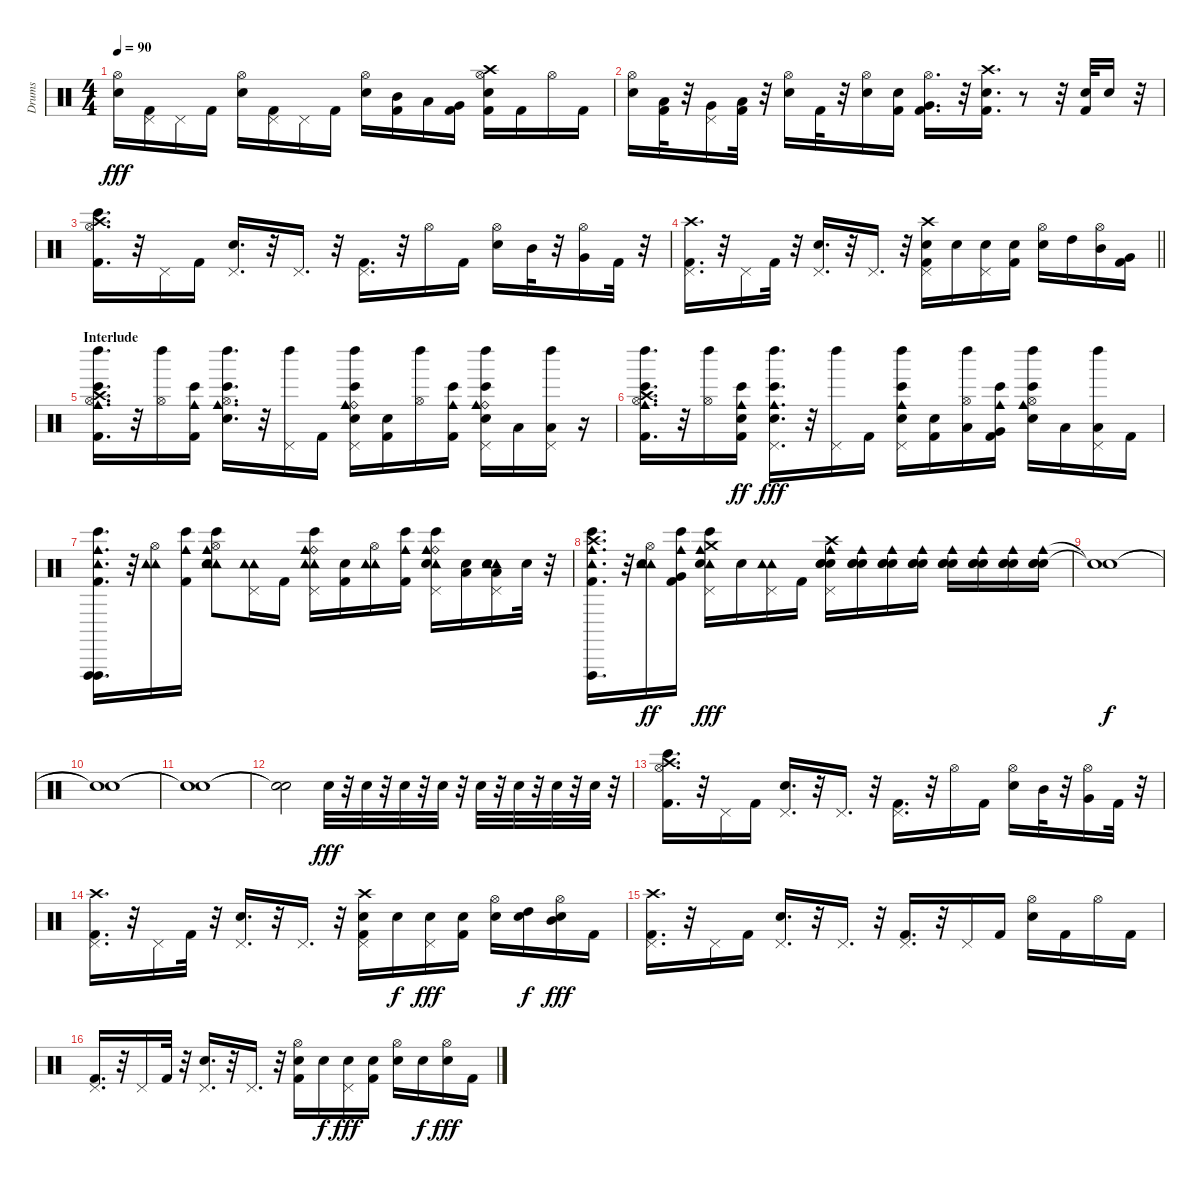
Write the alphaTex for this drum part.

\track ("Drums" "Drums") {instrument percussion}
\staff {score}
\articulation defaults
\ts (4 4)
\tempo 90
\clef neutral
\ks c
("Hi-Hat (open)" "Electric Snare (hit)").16{dy fff} ("Pedal Hi-Hat (hit)" "Kick (hit) 2").16 "Pedal Hi-Hat (hit)".16 "Kick (hit) 2".16 ("Electric Snare (hit)" "Hi-Hat (open)").16 ("Pedal Hi-Hat (hit)" "Kick (hit) 2").16 "Pedal Hi-Hat (hit)".16 "Kick (hit) 2".16 ("Electric Snare (hit)" "Hi-Hat (open)").16 ("Mid Tom (hit)" "Kick (hit) 2").16 "Low Tom (hit)".16 ("Very Low Tom (hit)" "Kick (hit) 2").16 ("Kick (hit) 2" "Crash high (hit)" "Hi-Hat (open)" "Electric Snare (hit)").16 "Kick (hit) 2".16 "Hi-Hat (open)".16 "Kick (hit) 2".16 |
("Hi-Hat (open)" "Electric Snare (hit)").16 ("Kick (hit) 2" "Low Tom (hit)").32 r.32 ("Very Low Tom (hit)" "Pedal Hi-Hat (hit)").16 ("Kick (hit) 2" "Low Floor Tom (hit)").32 r.32 ("Hi-Hat (open)" "Electric Snare (hit)").16 "Kick (hit) 2".32 r.32 ("Electric Snare (hit)" "Hi-Hat (open)").16 ("Electric Snare (hit)" "Kick (hit) 2").16 ("Hi-Hat (open)" "Very Low Tom (hit)" "Kick (hit) 2").16{d} r.32 ("Crash high (hit)" "Kick (hit) 2" "Electric Snare (hit)").16{d} r.8 r.32 ("Kick (hit) 2" "Electric Snare (hit)").32 "Electric Snare (hit)".16 r.32 |
("Bongo High (hit)" "Crash high (hit)" "Kick (hit) 2" "Hi-Hat (open)").16{d} r.32 "Pedal Hi-Hat (hit)".16 "Kick (hit) 2".16 ("Electric Snare (hit)" "Pedal Hi-Hat (hit)").16{d} r.32 "Pedal Hi-Hat (hit)".16{d} r.32 ("Kick (hit) 2" "Pedal Hi-Hat (hit)").16{d} r.32 "Hi-Hat (open)".16 "Kick (hit) 2".16 ("Electric Snare (hit)" "Hi-Hat (open)").16 "Mid Tom (hit)".32 r.32 ("Hi-Hat (open)" "Very Low Tom (hit)").16 "Kick (hit) 2".32 r.32 |
\barLineRight lightlight
("Crash high (hit)" "Kick (hit) 2" "Pedal Hi-Hat (hit)").16{d} r.32 "Pedal Hi-Hat (hit)".16 "Kick (hit) 2".32 r.32 ("Electric Snare (hit)" "Pedal Hi-Hat (hit)").16{d} r.32 "Pedal Hi-Hat (hit)".16{d} r.32 ("Electric Snare (hit)" "Crash high (hit)" "Kick (hit) 2" "Pedal Hi-Hat (hit)").16 "Electric Snare (hit)".16 ("Electric Snare (hit)" "Pedal Hi-Hat (hit)").16 ("Electric Snare (hit)" "Kick (hit) 2").16 ("Electric Snare (hit)" "Hi-Hat (open)").16 "High Tom (hit)".16 ("Mid Tom (hit)" "Hi-Hat (open)").16 ("Very Low Tom (hit)" "Kick (hit) 2").16 |
\section ("" "Interlude")
("Hi-Hat (open)" "Cowbell medium (hit)" "Bongo High (hit)" "Crash high (hit)" "Kick (hit) 2" "Left Maraca (hit)").16{d} r.32 ("Hi-Hat (open)" "Left Maraca (hit)").16 ("Kick (hit) 2" "Bongo High (hit)" "Cowbell medium (hit)").16 ("Hi-Hat (open)" "Cowbell medium (hit)" "Electric Snare (hit)" "Bongo High (hit)" "Left Maraca (hit)").16{d} r.32 ("Pedal Hi-Hat (hit)" "Left Maraca (hit)").16 "Kick (hit) 2".16 ("Pedal Hi-Hat (hit)" "Ride (bell)" "Cowbell medium (hit)" "Bongo High (hit)" "Left Maraca (hit)" "Electric Snare (hit)").16 ("Kick (hit) 2" "Electric Snare (hit)").16 ("Left Maraca (hit)" "Hi-Hat (open)").16 ("Cowbell medium (hit)" "Kick (hit) 2" "Bongo High (hit)").16 ("Pedal Hi-Hat (hit)" "Ride (bell)" "Cowbell medium (hit)" "Electric Snare (hit)" "Bongo High (hit)" "Left Maraca (hit)").16 "Low Tom (hit)".16 ("Pedal Hi-Hat (hit)" "Left Maraca (hit)" "Low Floor Tom (hit)").16 r.16 |
("Hi-Hat (open)" "Cowbell medium (hit)" "Bongo High (hit)" "Crash high (hit)" "Kick (hit) 2" "Left Maraca (hit)").16{d} r.32 ("Hi-Hat (open)" "Left Maraca (hit)").16 ("Kick (hit) 2" "Bongo High (hit)" "Cowbell medium (hit)" "Electric Snare (hit)").16{dy ff} ("Pedal Hi-Hat (hit)" "Cowbell medium (hit)" "Electric Snare (hit)" "Bongo High (hit)" "Left Maraca (hit)").16{d dy fff} r.32 ("Pedal Hi-Hat (hit)" "Left Maraca (hit)").16 "Kick (hit) 2".16 ("Pedal Hi-Hat (hit)" "Cowbell medium (hit)" "Bongo High (hit)" "Left Maraca (hit)" "Electric Snare (hit)").16 ("Kick (hit) 2" "Electric Snare (hit)").16 ("Low Tom (hit)" "Left Maraca (hit)" "Hi-Hat (open)").16 ("Cowbell medium (hit)" "Kick (hit) 2" "Bongo High (hit)" "Very Low Tom (hit)").16 ("Hi-Hat (open)" "Cowbell medium (hit)" "Electric Snare (hit)" "Bongo High (hit)" "Left Maraca (hit)").16 "Low Tom (hit)".16 ("Pedal Hi-Hat (hit)" "Left Maraca (hit)" "Low Floor Tom (hit)").16 "Kick (hit) 2".16 |
("Vibraslap (hit)" "Tambourine (hit)" "Vibraslap (hit)" "Cowbell medium (hit)" "Bongo High (hit)" "Kick (hit) 2").16{d} r.32 ("Tambourine (hit)" "Hi-Hat (open)" "Tambourine (hit)").16 ("Kick (hit) 2" "Bongo High (hit)" "Cowbell medium (hit)").16 ("Tambourine (hit)" "Hi-Hat (open)" "Cowbell medium (hit)" "Electric Snare (hit)" "Bongo High (hit)" "Tambourine (hit)").8 ("Tambourine (hit)" "Pedal Hi-Hat (hit)" "Tambourine (hit)").16 "Kick (hit) 2".16 ("Tambourine (hit)" "Pedal Hi-Hat (hit)" "Ride (bell)" "Cowbell medium (hit)" "Bongo High (hit)" "Tambourine (hit)").16 ("Kick (hit) 2" "Electric Snare (hit)").16 ("Tambourine (hit)" "Tambourine (hit)" "Hi-Hat (open)").16 ("Cowbell medium (hit)" "Kick (hit) 2" "Bongo High (hit)").16 ("Tambourine (hit)" "Pedal Hi-Hat (hit)" "Ride (bell)" "Cowbell medium (hit)" "Electric Snare (hit)" "Bongo High (hit)").16 ("Low Tom (hit)" "Electric Snare (hit)").16 ("Tambourine (hit)" "Pedal Hi-Hat (hit)" "Tambourine (hit)" "Low Floor Tom (hit)" "Electric Snare (hit)").16 "Electric Snare (hit)".32 r.32 |
("Tambourine (hit)" "Vibraslap (hit)" "Cowbell medium (hit)" "Bongo High (hit)" "Crash high (hit)" "Kick (hit) 2").16{d} r.32 ("Tambourine (hit)" "Hi-Hat (open)" "Tambourine (hit)" "Electric Snare (hit)").16{dy ff} ("Kick (hit) 2" "Bongo High (hit)" "Cowbell medium (hit)" "Very Low Tom (hit)").16 ("Crash medium (hit)" "Tambourine (hit)" "Pedal Hi-Hat (hit)" "Cowbell medium (hit)" "Electric Snare (hit)" "Bongo High (hit)").16{dy fff} "Electric Snare (hit)".16 ("Tambourine (hit)" "Pedal Hi-Hat (hit)" "Tambourine (hit)").16 "Kick (hit) 2".16 ("Pedal Hi-Hat (hit)" "Cowbell medium (hit)" "Crash high (hit)" "Electric Snare (hit)" "Electric Snare (hit)" "Electric Snare (hit)").16 ("Electric Snare (hit)" "Cowbell medium (hit)" "Electric Snare (hit)" "Electric Snare (hit)").16 ("Electric Snare (hit)" "Cowbell medium (hit)" "Electric Snare (hit)" "Electric Snare (hit)").16 ("Electric Snare (hit)" "Electric Snare (hit)" "Cowbell medium (hit)" "Electric Snare (hit)").16 ("Electric Snare (hit)" "Cowbell medium (hit)" "Electric Snare (hit)" "Electric Snare (hit)").16 ("Electric Snare (hit)" "Cowbell medium (hit)" "Electric Snare (hit)" "Electric Snare (hit)").16 ("Electric Snare (hit)" "Cowbell medium (hit)" "Electric Snare (hit)" "Electric Snare (hit)").16 ("Electric Snare (hit)" "Cowbell medium (hit)" "Electric Snare (hit)" "Electric Snare (hit)").16 |
("Snare (hit)"{t} "Snare (hit)"{t}).1{dy f} |
("Snare (hit)"{t} "Snare (hit)"{t}).1 |
("Snare (hit)"{t} "Snare (hit)"{t}).1 |
("Snare (hit)"{t} "Snare (hit)"{t}).2 "Electric Snare (hit)".32{dy fff} r.32 "Electric Snare (hit)".32 r.32 "Electric Snare (hit)".32 r.32 "Electric Snare (hit)".32 r.32 "Electric Snare (hit)".32 r.32 "Electric Snare (hit)".32 r.32 "Electric Snare (hit)".32 r.32 "Electric Snare (hit)".32 r.32 |
("Bongo High (hit)" "Crash high (hit)" "Kick (hit) 2" "Hi-Hat (open)").16{d} r.32 "Pedal Hi-Hat (hit)".16 "Kick (hit) 2".16 ("Electric Snare (hit)" "Pedal Hi-Hat (hit)").16{d} r.32 "Pedal Hi-Hat (hit)".16{d} r.32 ("Kick (hit) 2" "Pedal Hi-Hat (hit)").16{d} r.32 "Hi-Hat (open)".16 "Kick (hit) 2".16 ("Electric Snare (hit)" "Hi-Hat (open)").16 "Mid Tom (hit)".32 r.32 ("Hi-Hat (open)" "Very Low Tom (hit)").16 "Kick (hit) 2".32 r.32 |
("Crash high (hit)" "Kick (hit) 2" "Pedal Hi-Hat (hit)").16{d} r.32 "Pedal Hi-Hat (hit)".16 "Kick (hit) 2".32 r.32 ("Electric Snare (hit)" "Pedal Hi-Hat (hit)").16{d} r.32 "Pedal Hi-Hat (hit)".16{d} r.32 ("Electric Snare (hit)" "Crash high (hit)" "Kick (hit) 2" "Pedal Hi-Hat (hit)").16 "Electric Snare (hit)".16{dy f} ("Electric Snare (hit)" "Pedal Hi-Hat (hit)").16{dy fff} ("Electric Snare (hit)" "Kick (hit) 2").16 ("Electric Snare (hit)" "Hi-Hat (open)").16 ("High Tom (hit)" "Electric Snare (hit)").16{dy f} ("Mid Tom (hit)" "Electric Snare (hit)" "Hi-Hat (open)").16{dy fff} "Kick (hit) 2".16 |
("Crash high (hit)" "Kick (hit) 2" "Pedal Hi-Hat (hit)").16{d} r.32 "Pedal Hi-Hat (hit)".16 "Kick (hit) 2".16 ("Electric Snare (hit)" "Pedal Hi-Hat (hit)").16{d} r.32 "Pedal Hi-Hat (hit)".16{d} r.32 ("Pedal Hi-Hat (hit)" "Kick (hit) 2").16{d} r.32 "Pedal Hi-Hat (hit)".16 "Kick (hit) 2".16 ("Hi-Hat (open)" "Electric Snare (hit)").16 "Kick (hit) 2".16 "Hi-Hat (open)".16 "Kick (hit) 2".16 |
("Pedal Hi-Hat (hit)" "Kick (hit) 2").16{d} r.32 "Pedal Hi-Hat (hit)".16 "Kick (hit) 2".32 r.32 ("Pedal Hi-Hat (hit)" "Electric Snare (hit)").16{d} r.32 "Pedal Hi-Hat (hit)".16{d} r.32 ("Hi-Hat (open)" "Electric Snare (hit)" "Kick (hit) 2").16 "Electric Snare (hit)".16{dy f} ("Pedal Hi-Hat (hit)" "Electric Snare (hit)").16{dy fff} ("Electric Snare (hit)" "Kick (hit) 2").16 ("Hi-Hat (open)" "Electric Snare (hit)").16 "Electric Snare (hit)".16{dy f} ("Hi-Hat (open)" "Electric Snare (hit)").16{dy fff} "Kick (hit) 2".16
